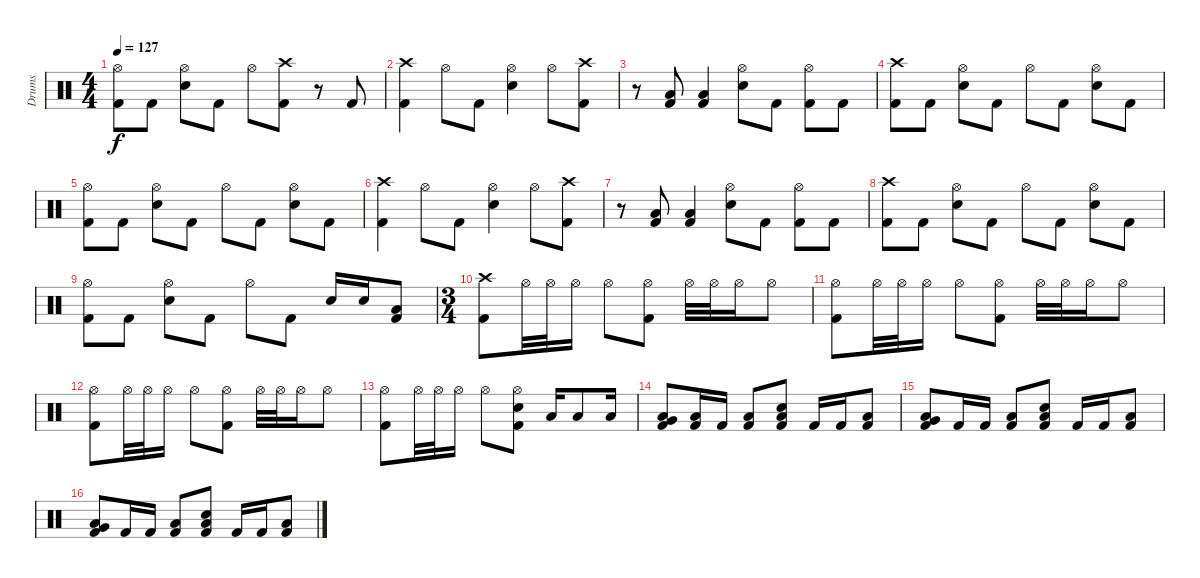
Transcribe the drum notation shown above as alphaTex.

\track ("Drums" "Drums") {instrument percussion}
\staff {score}
\articulation defaults
\ts (4 4)
\tempo 127
\clef neutral
\ks c
("Hi-Hat (open)" "Kick (hit) 2").8{dy f} "Kick (hit) 2".8 ("Hi-Hat (open)" "Electric Snare (hit)").8 "Kick (hit) 2".8 "Hi-Hat (open)".8 ("Crash high (hit)" "Kick (hit) 2").8 r.8 "Kick (hit) 2".8 |
("Crash high (hit)" "Kick (hit) 2").4 "Hi-Hat (open)".8 "Kick (hit) 2".8 ("Hi-Hat (open)" "Electric Snare (hit)").4 "Hi-Hat (open)".8 ("Crash high (hit)" "Kick (hit) 2").8 |
r.8 ("Low Floor Tom (hit)" "Kick (hit) 2").8 ("Low Floor Tom (hit)" "Kick (hit) 2").4 ("Hi-Hat (open)" "Electric Snare (hit)").8 "Kick (hit) 2".8 ("Hi-Hat (open)" "Kick (hit) 2").8 "Kick (hit) 2".8 |
("Crash high (hit)" "Kick (hit) 2").8 "Kick (hit) 2".8 ("Hi-Hat (open)" "Electric Snare (hit)").8 "Kick (hit) 2".8 "Hi-Hat (open)".8 "Kick (hit) 2".8 ("Hi-Hat (open)" "Electric Snare (hit)").8 "Kick (hit) 2".8 |
("Hi-Hat (open)" "Kick (hit) 2").8 "Kick (hit) 2".8 ("Hi-Hat (open)" "Electric Snare (hit)").8 "Kick (hit) 2".8 "Hi-Hat (open)".8 "Kick (hit) 2".8 ("Hi-Hat (open)" "Electric Snare (hit)").8 "Kick (hit) 2".8 |
("Crash high (hit)" "Kick (hit) 2").4 "Hi-Hat (open)".8 "Kick (hit) 2".8 ("Hi-Hat (open)" "Electric Snare (hit)").4 "Hi-Hat (open)".8 ("Crash high (hit)" "Kick (hit) 2").8 |
r.8 ("Low Floor Tom (hit)" "Kick (hit) 2").8 ("Low Floor Tom (hit)" "Kick (hit) 2").4 ("Hi-Hat (open)" "Electric Snare (hit)").8 "Kick (hit) 2".8 ("Hi-Hat (open)" "Kick (hit) 2").8 "Kick (hit) 2".8 |
("Crash high (hit)" "Kick (hit) 2").8 "Kick (hit) 2".8 ("Hi-Hat (open)" "Electric Snare (hit)").8 "Kick (hit) 2".8 "Hi-Hat (open)".8 "Kick (hit) 2".8 ("Hi-Hat (open)" "Electric Snare (hit)").8 "Kick (hit) 2".8 |
("Hi-Hat (open)" "Kick (hit) 2").8 "Kick (hit) 2".8 ("Hi-Hat (open)" "Electric Snare (hit)").8 "Kick (hit) 2".8 "Hi-Hat (open)".8 "Kick (hit) 2".8 "Electric Snare (hit)".16 "Electric Snare (hit)".16 ("Low Floor Tom (hit)" "Kick (hit) 2").8 |
\ts (3 4)
("Crash high (hit)" "Kick (hit) 2").8 "Hi-Hat (open)".32 "Hi-Hat (open)".32 "Hi-Hat (open)".16 "Hi-Hat (open)".8 ("Hi-Hat (open)" "Kick (hit) 2").8 "Hi-Hat (open)".32 "Hi-Hat (open)".32 "Hi-Hat (open)".16 "Hi-Hat (open)".8 |
("Hi-Hat (open)" "Kick (hit) 2").8 "Hi-Hat (open)".32 "Hi-Hat (open)".32 "Hi-Hat (open)".16 "Hi-Hat (open)".8 ("Hi-Hat (open)" "Kick (hit) 2").8 "Hi-Hat (open)".32 "Hi-Hat (open)".32 "Hi-Hat (open)".16 "Hi-Hat (open)".8 |
("Hi-Hat (open)" "Kick (hit) 2").8 "Hi-Hat (open)".32 "Hi-Hat (open)".32 "Hi-Hat (open)".16 "Hi-Hat (open)".8 ("Hi-Hat (open)" "Kick (hit) 2").8 "Hi-Hat (open)".32 "Hi-Hat (open)".32 "Hi-Hat (open)".16 "Hi-Hat (open)".8 |
("Hi-Hat (open)" "Kick (hit) 2").8 "Hi-Hat (open)".32 "Hi-Hat (open)".32 "Hi-Hat (open)".16 "Hi-Hat (open)".8 ("Hi-Hat (open)" "Electric Snare (hit)" "Kick (hit) 2").8 "Low Tom (hit)".16 "Low Tom (hit)".8 "Low Tom (hit)".16 |
("Low Floor Tom (hit)" "Very Low Tom (hit)" "Kick (hit) 2").8 ("Low Floor Tom (hit)" "Kick (hit) 2").16 "Kick (hit) 2".16 ("Low Floor Tom (hit)" "Kick (hit) 2").8 ("Low Floor Tom (hit)" "Electric Snare (hit)" "Kick (hit) 2").8 "Kick (hit) 2".16 "Kick (hit) 2".16 ("Low Floor Tom (hit)" "Kick (hit) 2").8 |
("Low Floor Tom (hit)" "Very Low Tom (hit)" "Kick (hit) 2").8 "Kick (hit) 2".16 "Kick (hit) 2".16 ("Low Floor Tom (hit)" "Kick (hit) 2").8 ("Low Floor Tom (hit)" "Electric Snare (hit)" "Kick (hit) 2").8 "Kick (hit) 2".16 "Kick (hit) 2".16 ("Low Floor Tom (hit)" "Kick (hit) 2").8 |
("Low Floor Tom (hit)" "Very Low Tom (hit)" "Kick (hit) 2").8 "Kick (hit) 2".16 "Kick (hit) 2".16 ("Low Floor Tom (hit)" "Kick (hit) 2").8 ("Low Floor Tom (hit)" "Electric Snare (hit)" "Kick (hit) 2").8 "Kick (hit) 2".16 "Kick (hit) 2".16 ("Low Floor Tom (hit)" "Kick (hit) 2").8
